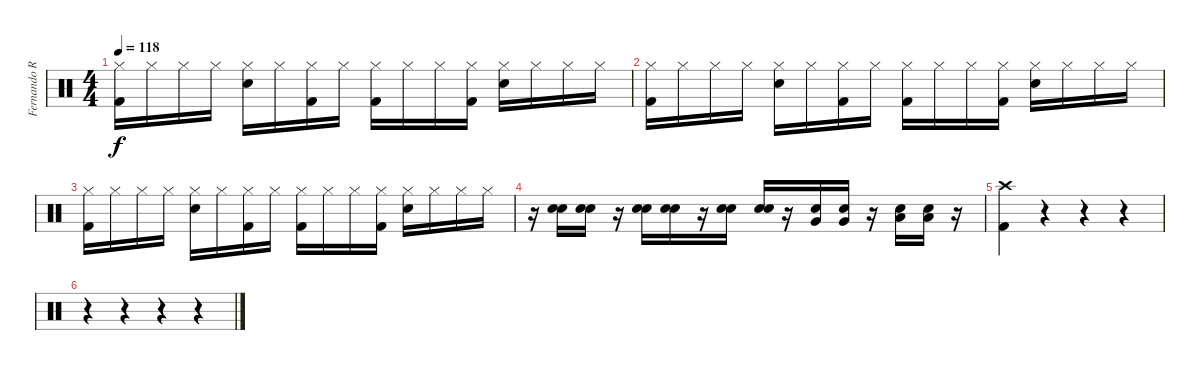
\track ("Fernando Ricciardi" "Fernando R") {instrument percussion}
\staff {score}
\articulation defaults
\ts (4 4)
\tempo 118
\clef neutral
\ks c
("Hi-Hat (closed)" "Kick (hit) 2").16{dy f} "Hi-Hat (closed)".16 "Hi-Hat (closed)".16 "Hi-Hat (closed)".16 ("Hi-Hat (closed)" "Snare (hit) 2").16 "Hi-Hat (closed)".16 ("Hi-Hat (closed)" "Kick (hit) 2").16 "Hi-Hat (closed)".16 ("Hi-Hat (closed)" "Kick (hit) 2").16 "Hi-Hat (closed)".16 "Hi-Hat (closed)".16 ("Hi-Hat (closed)" "Kick (hit) 2").16 ("Hi-Hat (closed)" "Snare (hit) 2").16 "Hi-Hat (closed)".16 "Hi-Hat (closed)".16 "Hi-Hat (closed)".16 |
("Hi-Hat (closed)" "Kick (hit) 2").16 "Hi-Hat (closed)".16 "Hi-Hat (closed)".16 "Hi-Hat (closed)".16 ("Hi-Hat (closed)" "Snare (hit) 2").16 "Hi-Hat (closed)".16 ("Hi-Hat (closed)" "Kick (hit) 2").16 "Hi-Hat (closed)".16 ("Hi-Hat (closed)" "Kick (hit) 2").16 "Hi-Hat (closed)".16 "Hi-Hat (closed)".16 ("Hi-Hat (closed)" "Kick (hit) 2").16 ("Hi-Hat (closed)" "Snare (hit) 2").16 "Hi-Hat (closed)".16 "Hi-Hat (closed)".16 "Hi-Hat (closed)".16 |
("Hi-Hat (closed)" "Kick (hit) 2").16 "Hi-Hat (closed)".16 "Hi-Hat (closed)".16 "Hi-Hat (closed)".16 ("Hi-Hat (closed)" "Snare (hit) 2").16 "Hi-Hat (closed)".16 ("Hi-Hat (closed)" "Kick (hit) 2").16 "Hi-Hat (closed)".16 ("Hi-Hat (closed)" "Kick (hit) 2").16 "Hi-Hat (closed)".16 "Hi-Hat (closed)".16 ("Hi-Hat (closed)" "Kick (hit) 2").16 ("Hi-Hat (closed)" "Snare (hit) 2").16 "Hi-Hat (closed)".16 "Hi-Hat (closed)".16 "Hi-Hat (closed)".16 |
r.16 ("Snare (hit) 2" "Snare (hit) 2").16 ("Snare (hit) 2" "Snare (hit) 2").16 r.16 ("Snare (hit) 2" "Snare (hit) 2").16 ("Snare (hit) 2" "Snare (hit) 2").16 r.16 ("Snare (hit) 2" "Snare (hit) 2").16 ("Snare (hit) 2" "Snare (hit) 2").16 r.16 ("Very Low Tom (hit)" "Snare (hit) 2").16 ("Very Low Tom (hit)" "Snare (hit) 2").16 r.16 ("Low Tom (hit)" "Snare (hit) 2").16 ("Low Tom (hit)" "Snare (hit) 2").16 r.16 |
("Crash high (hit)" "Kick (hit) 2").4 r.4 r.4 r.4 |
r.4 r.4 r.4 r.4
